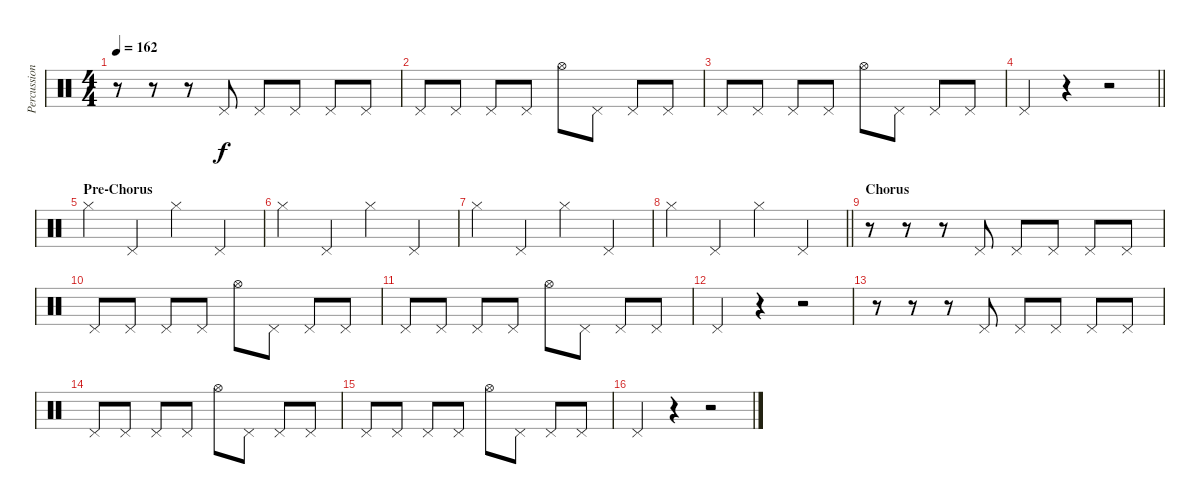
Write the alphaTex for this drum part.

\track ("Percussion" "Percussion") {instrument percussion}
\staff {score}
\articulation defaults
\ts (4 4)
\tempo 162
\clef neutral
\ks c
r.8{dy f} r.8 r.8 "Pedal Hi-Hat (hit)".8 "Pedal Hi-Hat (hit)".8 "Pedal Hi-Hat (hit)".8 "Pedal Hi-Hat (hit)".8 "Pedal Hi-Hat (hit)".8 |
"Pedal Hi-Hat (hit)".8 "Pedal Hi-Hat (hit)".8 "Pedal Hi-Hat (hit)".8 "Pedal Hi-Hat (hit)".8 "Hi-Hat (open)".8 "Pedal Hi-Hat (hit)".8 "Pedal Hi-Hat (hit)".8 "Pedal Hi-Hat (hit)".8 |
"Pedal Hi-Hat (hit)".8 "Pedal Hi-Hat (hit)".8 "Pedal Hi-Hat (hit)".8 "Pedal Hi-Hat (hit)".8 "Hi-Hat (open)".8 "Pedal Hi-Hat (hit)".8 "Pedal Hi-Hat (hit)".8 "Pedal Hi-Hat (hit)".8 |
\barLineRight lightlight "Pedal Hi-Hat (hit)".4
r.4 r.2 |
\section ("" "Pre-Chorus")
"Hi-Hat (closed)".4 "Pedal Hi-Hat (hit)".4 "Hi-Hat (closed)".4 "Pedal Hi-Hat (hit)".4 |
"Hi-Hat (closed)".4 "Pedal Hi-Hat (hit)".4 "Hi-Hat (closed)".4 "Pedal Hi-Hat (hit)".4 |
"Hi-Hat (closed)".4 "Pedal Hi-Hat (hit)".4 "Hi-Hat (closed)".4 "Pedal Hi-Hat (hit)".4 |
\barLineRight lightlight "Hi-Hat (closed)".4 "Pedal Hi-Hat (hit)".4 "Hi-Hat (closed)".4 "Pedal Hi-Hat (hit)".4
|
\section ("" "Chorus")
r.8 r.8 r.8 "Pedal Hi-Hat (hit)".8 "Pedal Hi-Hat (hit)".8 "Pedal Hi-Hat (hit)".8 "Pedal Hi-Hat (hit)".8 "Pedal Hi-Hat (hit)".8 |
"Pedal Hi-Hat (hit)".8 "Pedal Hi-Hat (hit)".8 "Pedal Hi-Hat (hit)".8 "Pedal Hi-Hat (hit)".8 "Hi-Hat (open)".8 "Pedal Hi-Hat (hit)".8 "Pedal Hi-Hat (hit)".8 "Pedal Hi-Hat (hit)".8 |
"Pedal Hi-Hat (hit)".8 "Pedal Hi-Hat (hit)".8 "Pedal Hi-Hat (hit)".8 "Pedal Hi-Hat (hit)".8 "Hi-Hat (open)".8 "Pedal Hi-Hat (hit)".8 "Pedal Hi-Hat (hit)".8 "Pedal Hi-Hat (hit)".8 |
"Pedal Hi-Hat (hit)".4 r.4 r.2 |
r.8 r.8 r.8 "Pedal Hi-Hat (hit)".8 "Pedal Hi-Hat (hit)".8 "Pedal Hi-Hat (hit)".8 "Pedal Hi-Hat (hit)".8 "Pedal Hi-Hat (hit)".8 |
"Pedal Hi-Hat (hit)".8 "Pedal Hi-Hat (hit)".8 "Pedal Hi-Hat (hit)".8 "Pedal Hi-Hat (hit)".8 "Hi-Hat (open)".8 "Pedal Hi-Hat (hit)".8 "Pedal Hi-Hat (hit)".8 "Pedal Hi-Hat (hit)".8 |
"Pedal Hi-Hat (hit)".8 "Pedal Hi-Hat (hit)".8 "Pedal Hi-Hat (hit)".8 "Pedal Hi-Hat (hit)".8 "Hi-Hat (open)".8 "Pedal Hi-Hat (hit)".8 "Pedal Hi-Hat (hit)".8 "Pedal Hi-Hat (hit)".8 |
"Pedal Hi-Hat (hit)".4 r.4 r.2
